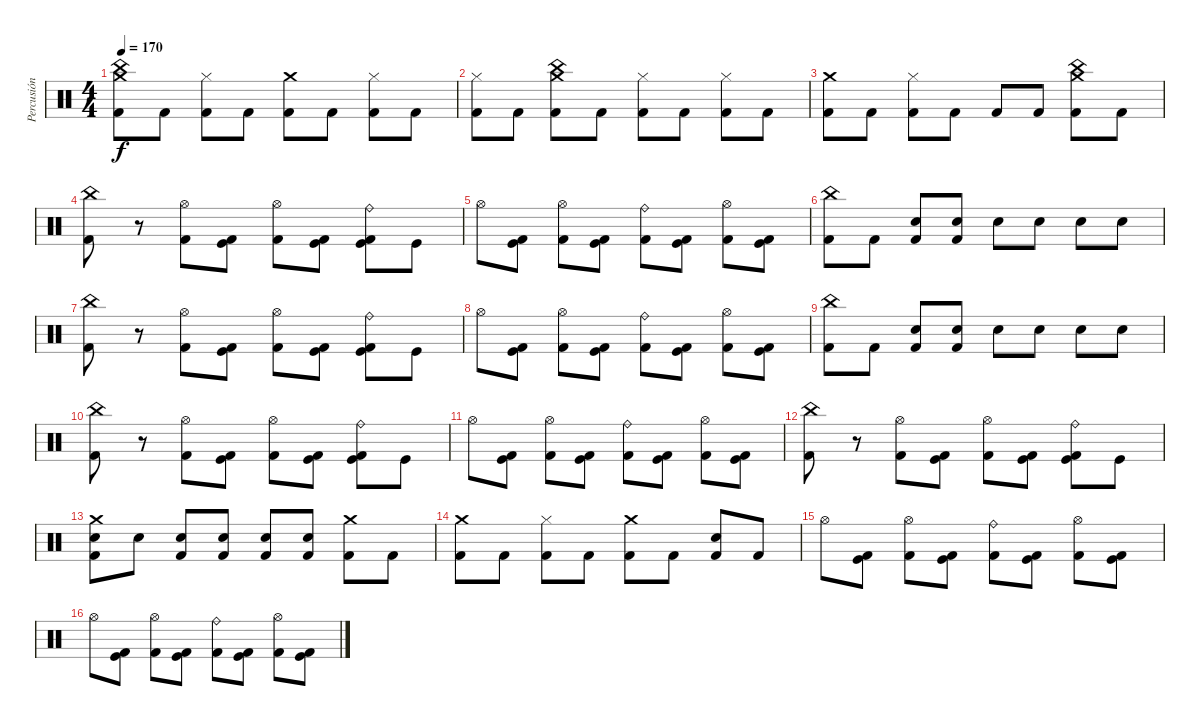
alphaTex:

\track ("Percusión" "Percusión") {instrument percussion}
\staff {score}
\articulation defaults
\ts (4 4)
\tempo 170
\clef neutral
\ks c
("China (hit)" "Crash medium (hit)" "Kick (hit) 2").8{dy f} "Kick (hit) 2".8 ("Hi-Hat (closed)" "Kick (hit) 2").8 "Kick (hit) 2".8 ("Crash medium (hit)" "Kick (hit) 2").8 "Kick (hit) 2".8 ("Hi-Hat (closed)" "Kick (hit) 2").8 "Kick (hit) 2".8 |
("Hi-Hat (closed)" "Kick (hit) 2").8 "Kick (hit) 2".8 ("China (hit)" "Crash medium (hit)" "Kick (hit) 2").8 "Kick (hit) 2".8 ("Hi-Hat (closed)" "Kick (hit) 2").8 "Kick (hit) 2".8 ("Hi-Hat (closed)" "Kick (hit) 2").8 "Kick (hit) 2".8 |
("Crash medium (hit)" "Kick (hit) 2").8 "Kick (hit) 2".8 ("Hi-Hat (closed)" "Kick (hit) 2").8 "Kick (hit) 2".8 "Kick (hit) 2".8 "Kick (hit) 2".8 ("China (hit)" "Crash medium (hit)" "Kick (hit) 2").8 "Kick (hit) 2".8 |
("China (hit)" "Kick (hit) 2").8 r.8 ("Hi-Hat (open)" "Kick (hit) 2").8 ("Kick (hit)" "Kick (hit) 2").8 ("Hi-Hat (open)" "Kick (hit) 2").8 ("Kick (hit)" "Kick (hit) 2").8 ("Ride (bell)" "Kick (hit)" "Kick (hit) 2").8 "Kick (hit)".8 |
"Hi-Hat (open)".8 ("Kick (hit)" "Kick (hit) 2").8 ("Hi-Hat (open)" "Kick (hit) 2").8 ("Kick (hit)" "Kick (hit) 2").8 ("Ride (bell)" "Kick (hit) 2").8 ("Kick (hit)" "Kick (hit) 2").8 ("Hi-Hat (open)" "Kick (hit) 2").8 ("Kick (hit)" "Kick (hit) 2").8 |
("China (hit)" "Kick (hit) 2").8 "Kick (hit) 2".8 ("Snare (hit) 2" "Kick (hit) 2").8 ("Snare (hit) 2" "Kick (hit) 2").8 "Snare (hit) 2".8 "Snare (hit) 2".8 "Snare (hit) 2".8 "Snare (hit) 2".8 |
("China (hit)" "Kick (hit) 2").8 r.8 ("Hi-Hat (open)" "Kick (hit) 2").8 ("Kick (hit)" "Kick (hit) 2").8 ("Hi-Hat (open)" "Kick (hit) 2").8 ("Kick (hit)" "Kick (hit) 2").8 ("Ride (bell)" "Kick (hit)" "Kick (hit) 2").8 "Kick (hit)".8 |
"Hi-Hat (open)".8 ("Kick (hit)" "Kick (hit) 2").8 ("Hi-Hat (open)" "Kick (hit) 2").8 ("Kick (hit)" "Kick (hit) 2").8 ("Ride (bell)" "Kick (hit) 2").8 ("Kick (hit)" "Kick (hit) 2").8 ("Hi-Hat (open)" "Kick (hit) 2").8 ("Kick (hit)" "Kick (hit) 2").8 |
("China (hit)" "Kick (hit) 2").8 "Kick (hit) 2".8 ("Snare (hit) 2" "Kick (hit) 2").8 ("Snare (hit) 2" "Kick (hit) 2").8 "Snare (hit) 2".8 "Snare (hit) 2".8 "Snare (hit) 2".8 "Snare (hit) 2".8 |
("China (hit)" "Kick (hit) 2").8 r.8 ("Hi-Hat (open)" "Kick (hit) 2").8 ("Kick (hit)" "Kick (hit) 2").8 ("Hi-Hat (open)" "Kick (hit) 2").8 ("Kick (hit)" "Kick (hit) 2").8 ("Ride (bell)" "Kick (hit)" "Kick (hit) 2").8 "Kick (hit)".8 |
"Hi-Hat (open)".8 ("Kick (hit)" "Kick (hit) 2").8 ("Hi-Hat (open)" "Kick (hit) 2").8 ("Kick (hit)" "Kick (hit) 2").8 ("Ride (bell)" "Kick (hit) 2").8 ("Kick (hit)" "Kick (hit) 2").8 ("Hi-Hat (open)" "Kick (hit) 2").8 ("Kick (hit)" "Kick (hit) 2").8 |
("China (hit)" "Kick (hit) 2").8 r.8 ("Hi-Hat (open)" "Kick (hit) 2").8 ("Kick (hit)" "Kick (hit) 2").8 ("Hi-Hat (open)" "Kick (hit) 2").8 ("Kick (hit)" "Kick (hit) 2").8 ("Ride (bell)" "Kick (hit)" "Kick (hit) 2").8 "Kick (hit)".8 |
("Crash medium (hit)" "Snare (hit) 2" "Kick (hit) 2").8 "Snare (hit) 2".8 ("Snare (hit) 2" "Kick (hit) 2").8 ("Snare (hit) 2" "Kick (hit) 2").8 ("Snare (hit) 2" "Kick (hit) 2").8 ("Snare (hit) 2" "Kick (hit) 2").8 ("Crash medium (hit)" "Kick (hit) 2").8 "Kick (hit) 2".8 |
("Crash medium (hit)" "Kick (hit) 2").8 "Kick (hit) 2".8 ("Hi-Hat (closed)" "Kick (hit) 2").8 "Kick (hit) 2".8 ("Crash medium (hit)" "Kick (hit) 2").8 "Kick (hit) 2".8 ("Snare (hit) 2" "Kick (hit) 2").8 "Kick (hit) 2".8 |
"Hi-Hat (open)".8 ("Kick (hit)" "Kick (hit) 2").8 ("Hi-Hat (open)" "Kick (hit) 2").8 ("Kick (hit)" "Kick (hit) 2").8 ("Ride (bell)" "Kick (hit) 2").8 ("Kick (hit)" "Kick (hit) 2").8 ("Hi-Hat (open)" "Kick (hit) 2").8 ("Kick (hit)" "Kick (hit) 2").8 |
"Hi-Hat (open)".8 ("Kick (hit)" "Kick (hit) 2").8 ("Hi-Hat (open)" "Kick (hit) 2").8 ("Kick (hit)" "Kick (hit) 2").8 ("Ride (bell)" "Kick (hit) 2").8 ("Kick (hit)" "Kick (hit) 2").8 ("Hi-Hat (open)" "Kick (hit) 2").8 ("Kick (hit)" "Kick (hit) 2").8
